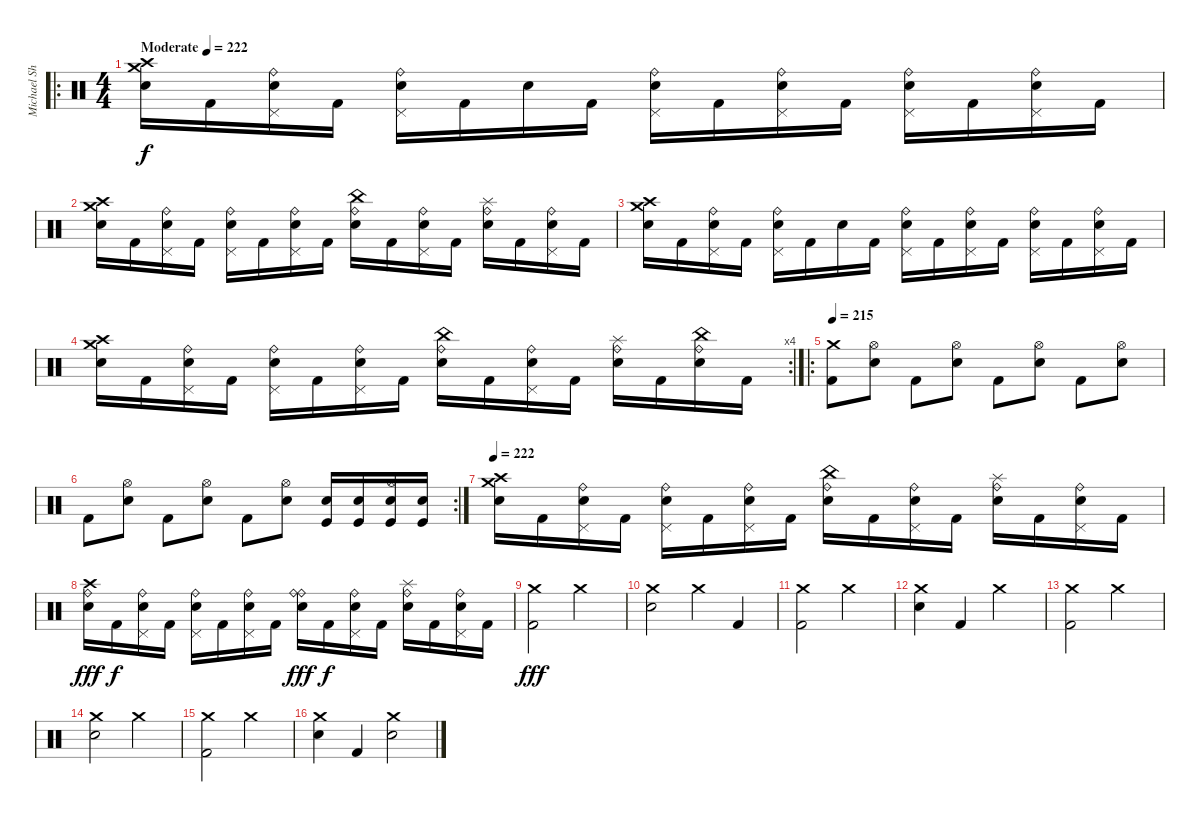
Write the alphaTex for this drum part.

\track ("Michael Sharp" "Michael Sh") {instrument percussion}
\staff {score}
\articulation defaults
\ro
\ts (4 4)
\tempo (222 "Moderate")
\clef neutral
\ks c
("Crash medium (hit)" "Crash high (hit)" "Electric Snare (hit)").16{dy f} "Kick (hit) 2".16 ("Pedal Hi-Hat (hit)" "Ride (bell)" "Electric Snare (hit)").16 "Kick (hit) 2".16 ("Pedal Hi-Hat (hit)" "Ride (bell)" "Electric Snare (hit)").16 "Kick (hit) 2".16 "Electric Snare (hit)".16 "Kick (hit) 2".16 ("Pedal Hi-Hat (hit)" "Ride (bell)" "Electric Snare (hit)").16 "Kick (hit) 2".16 ("Pedal Hi-Hat (hit)" "Ride (bell)" "Electric Snare (hit)").16 "Kick (hit) 2".16 ("Pedal Hi-Hat (hit)" "Ride (bell)" "Electric Snare (hit)").16 "Kick (hit) 2".16 ("Pedal Hi-Hat (hit)" "Ride (bell)" "Electric Snare (hit)").16 "Kick (hit) 2".16 |
("Crash medium (hit)" "Crash high (hit)" "Electric Snare (hit)").16 "Kick (hit) 2".16 ("Pedal Hi-Hat (hit)" "Ride (bell)" "Electric Snare (hit)").16 "Kick (hit) 2".16 ("Pedal Hi-Hat (hit)" "Ride (bell)" "Electric Snare (hit)").16 "Kick (hit) 2".16 ("Pedal Hi-Hat (hit)" "Ride (bell)" "Electric Snare (hit)").16 "Kick (hit) 2".16 ("China (hit)" "Ride (bell)" "Electric Snare (hit)").16 "Kick (hit) 2".16 ("Pedal Hi-Hat (hit)" "Ride (bell)" "Electric Snare (hit)").16 "Kick (hit) 2".16 ("Splash (hit)" "Ride (bell)" "Electric Snare (hit)").16 "Kick (hit) 2".16 ("Pedal Hi-Hat (hit)" "Ride (bell)" "Electric Snare (hit)").16 "Kick (hit) 2".16 |
("Crash medium (hit)" "Crash high (hit)" "Electric Snare (hit)").16 "Kick (hit) 2".16 ("Pedal Hi-Hat (hit)" "Ride (bell)" "Electric Snare (hit)").16 "Kick (hit) 2".16 ("Pedal Hi-Hat (hit)" "Ride (bell)" "Electric Snare (hit)").16 "Kick (hit) 2".16 "Electric Snare (hit)".16 "Kick (hit) 2".16 ("Pedal Hi-Hat (hit)" "Ride (bell)" "Electric Snare (hit)").16 "Kick (hit) 2".16 ("Pedal Hi-Hat (hit)" "Ride (bell)" "Electric Snare (hit)").16 "Kick (hit) 2".16 ("Pedal Hi-Hat (hit)" "Ride (bell)" "Electric Snare (hit)").16 "Kick (hit) 2".16 ("Pedal Hi-Hat (hit)" "Ride (bell)" "Electric Snare (hit)").16 "Kick (hit) 2".16 |
\rc 4
("Crash medium (hit)" "Crash high (hit)" "Electric Snare (hit)").16 "Kick (hit) 2".16 ("Pedal Hi-Hat (hit)" "Ride (bell)" "Electric Snare (hit)").16 "Kick (hit) 2".16 ("Pedal Hi-Hat (hit)" "Ride (bell)" "Electric Snare (hit)").16 "Kick (hit) 2".16 ("Pedal Hi-Hat (hit)" "Ride (bell)" "Electric Snare (hit)").16 "Kick (hit) 2".16 ("China (hit)" "Ride (bell)" "Electric Snare (hit)").16 "Kick (hit) 2".16 ("Pedal Hi-Hat (hit)" "Ride (bell)" "Electric Snare (hit)").16 "Kick (hit) 2".16 ("Splash (hit)" "Ride (bell)" "Electric Snare (hit)").16 "Kick (hit) 2".16 ("China (hit)" "Ride (bell)" "Electric Snare (hit)").16 "Kick (hit) 2".16 |
\ro
\tempo 215
("Crash medium (hit)" "Kick (hit) 2").8 ("Hi-Hat (open)" "Electric Snare (hit)").8 "Kick (hit) 2".8 ("Hi-Hat (open)" "Electric Snare (hit)").8 "Kick (hit) 2".8 ("Hi-Hat (open)" "Electric Snare (hit)").8 "Kick (hit) 2".8 ("Hi-Hat (open)" "Electric Snare (hit)").8 |
\rc 2 "Kick (hit) 2".8
("Hi-Hat (open)" "Electric Snare (hit)").8 "Kick (hit) 2".8 ("Hi-Hat (open)" "Electric Snare (hit)").8 "Kick (hit) 2".8 ("Hi-Hat (open)" "Electric Snare (hit)").8 ("Electric Snare (hit)" "Kick (hit)").16 ("Electric Snare (hit)" "Kick (hit)").16 ("Hi-Hat (open)" "Electric Snare (hit)" "Kick (hit)").16 ("Electric Snare (hit)" "Kick (hit)").16 |
\tempo 222
("Crash medium (hit)" "Crash high (hit)" "Electric Snare (hit)").16 "Kick (hit) 2".16 ("Pedal Hi-Hat (hit)" "Ride (bell)" "Electric Snare (hit)").16 "Kick (hit) 2".16 ("Pedal Hi-Hat (hit)" "Ride (bell)" "Electric Snare (hit)").16 "Kick (hit) 2".16 ("Pedal Hi-Hat (hit)" "Ride (bell)" "Electric Snare (hit)").16 "Kick (hit) 2".16 ("China (hit)" "Ride (bell)" "Electric Snare (hit)").16 "Kick (hit) 2".16 ("Pedal Hi-Hat (hit)" "Ride (bell)" "Electric Snare (hit)").16 "Kick (hit) 2".16 ("Splash (hit)" "Ride (bell)" "Electric Snare (hit)").16 "Kick (hit) 2".16 ("Pedal Hi-Hat (hit)" "Ride (bell)" "Electric Snare (hit)").16 "Kick (hit) 2".16 |
("Ride (bell)" "Crash high (hit)" "Electric Snare (hit)").16{dy fff} "Kick (hit) 2".16{dy f} ("Pedal Hi-Hat (hit)" "Ride (bell)" "Electric Snare (hit)").16 "Kick (hit) 2".16 ("Pedal Hi-Hat (hit)" "Ride (bell)" "Electric Snare (hit)").16 "Kick (hit) 2".16 ("Pedal Hi-Hat (hit)" "Ride (bell)" "Electric Snare (hit)").16 "Kick (hit) 2".16 ("Ride (bell)" "Ride (bell)" "Electric Snare (hit)").16{dy fff} "Kick (hit) 2".16{dy f} ("Pedal Hi-Hat (hit)" "Ride (bell)" "Electric Snare (hit)").16 "Kick (hit) 2".16 ("Splash (hit)" "Ride (bell)" "Electric Snare (hit)").16 "Kick (hit) 2".16 ("Pedal Hi-Hat (hit)" "Ride (bell)" "Electric Snare (hit)").16 "Kick (hit) 2".16 |
("Crash medium (hit)" "Kick (hit) 2").2{dy fff} "Crash medium (hit)".2 |
("Crash medium (hit)" "Electric Snare (hit)").2 "Crash medium (hit)".4 "Kick (hit) 2".4 |
("Crash medium (hit)" "Kick (hit) 2").2 "Crash medium (hit)".2 |
("Crash medium (hit)" "Electric Snare (hit)").4 "Kick (hit) 2".4 "Crash medium (hit)".2 |
("Crash medium (hit)" "Kick (hit) 2").2 "Crash medium (hit)".2 |
("Crash medium (hit)" "Electric Snare (hit)").2 "Crash medium (hit)".2 |
("Crash medium (hit)" "Kick (hit) 2").2 "Crash medium (hit)".2 |
("Crash medium (hit)" "Electric Snare (hit)").4 "Kick (hit) 2".4 ("Crash medium (hit)" "Electric Snare (hit)").2
